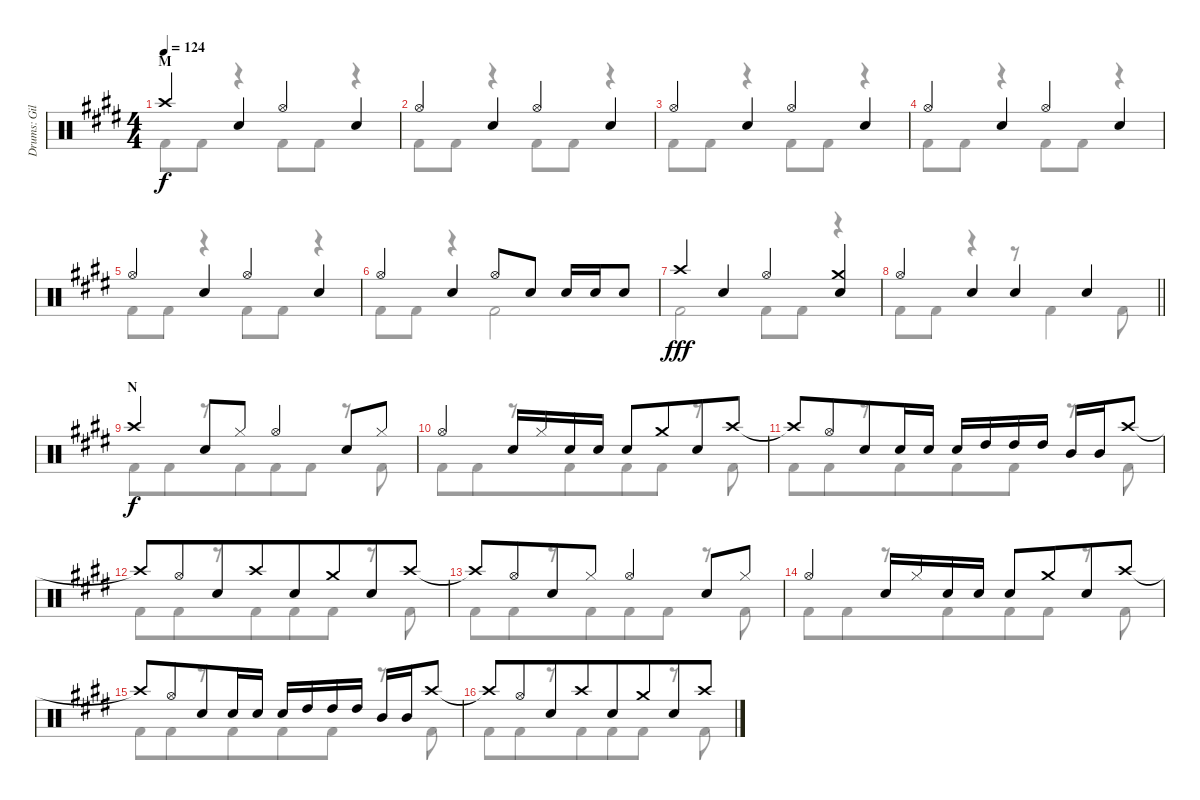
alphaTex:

\track ("Drums: Gil" "Drums: Gil") {instrument percussion}
\staff {score}
\articulation defaults
\voice
\ts (4 4)
\section ("" "M")
\tempo 124
\clef neutral
\ks e "Crash high (hit)".4{dy f} "Snare (hit) 2".4 "Hi-Hat (open)".4 "Snare (hit) 2".4
|
"Hi-Hat (open)".4 "Snare (hit) 2".4 "Hi-Hat (open)".4 "Snare (hit) 2".4 |
"Hi-Hat (open)".4 "Snare (hit) 2".4 "Hi-Hat (open)".4 "Snare (hit) 2".4 |
"Hi-Hat (open)".4 "Snare (hit) 2".4 "Hi-Hat (open)".4 "Snare (hit) 2".4 |
"Hi-Hat (open)".4 "Snare (hit) 2".4 "Hi-Hat (open)".4 "Snare (hit) 2".4 |
"Hi-Hat (open)".4 "Snare (hit) 2".4 "Hi-Hat (open)".8 "Snare (hit) 2".8 "Snare (hit) 2".16 "Snare (hit) 2".16 "Snare (hit) 2".8 |
"Crash high (hit)".4{dy fff} "Snare (hit) 2".4 "Hi-Hat (open)".4 ("Crash medium (hit)" "Snare (hit) 2").4 |
\barLineRight lightlight "Hi-Hat (open)".4 "Snare (hit) 2".4 "Snare (hit) 2".4 "Snare (hit) 2".4
|
\section ("" "N")
"Crash high (hit)".4{dy f beam merge} "Snare (hit) 2".8 "Hi-Hat (closed)".8 "Hi-Hat (open)".4 "Snare (hit) 2".8 "Hi-Hat (closed)".8 |
"Hi-Hat (open)".4{beam merge} "Snare (hit) 2".16 "Hi-Hat (closed)".16 "Snare (hit) 2".16 "Snare (hit) 2".16 "Snare (hit) 2".8 "Crash medium (hit)".8{beam merge} "Electric Snare (hit)".8 "Crash high (hit)".8 |
"Crash high (hit)"{t}.8 "Hi-Hat (open)".8{beam merge} "Snare (hit) 2".8 "Snare (hit) 2".16 "Snare (hit) 2".16 "Snare (hit) 2".16 "High Tom (hit)".16 "High Tom (hit)".16 "High Tom (hit)".16 "Mid Tom (hit)".16 "Mid Tom (hit)".16 "Crash high (hit)".8 |
"Crash high (hit)"{t}.8 "Hi-Hat (open)".8{beam merge} "Snare (hit) 2".8 "Crash high (hit)".8{beam merge} "Snare (hit) 2".8 "Crash medium (hit)".8{beam merge} "Snare (hit) 2".8 "Crash high (hit)".8 |
"Crash high (hit)"{t}.8 "Hi-Hat (open)".8{beam merge} "Snare (hit) 2".8 "Hi-Hat (closed)".8 "Hi-Hat (open)".4 "Snare (hit) 2".8 "Hi-Hat (closed)".8 |
"Hi-Hat (open)".4{beam merge} "Snare (hit) 2".16 "Hi-Hat (closed)".16 "Snare (hit) 2".16 "Snare (hit) 2".16 "Snare (hit) 2".8 "Crash medium (hit)".8{beam merge} "Electric Snare (hit)".8 "Crash high (hit)".8 |
"Crash high (hit)"{t}.8 "Hi-Hat (open)".8{beam merge} "Snare (hit) 2".8 "Snare (hit) 2".16 "Snare (hit) 2".16 "Snare (hit) 2".16 "High Tom (hit)".16 "High Tom (hit)".16 "High Tom (hit)".16 "Mid Tom (hit)".16 "Mid Tom (hit)".16 "Crash high (hit)".8 |
"Crash high (hit)"{t}.8 "Hi-Hat (open)".8{beam merge} "Snare (hit) 2".8 "Crash high (hit)".8{beam merge} "Snare (hit) 2".8 "Crash medium (hit)".8{beam merge} "Snare (hit) 2".8 "Crash high (hit)".8
\voice
\clef neutral
\ottava regular
\simile none
\ks e "Kick (hit) 2".8{dy f} "Kick (hit) 2".8
r.4{beam merge} "Kick (hit) 2".8 "Kick (hit) 2".8 r.4 |
"Kick (hit) 2".8 "Kick (hit) 2".8 r.4{beam merge} "Kick (hit) 2".8 "Kick (hit) 2".8 r.4 |
"Kick (hit) 2".8 "Kick (hit) 2".8 r.4{beam merge} "Kick (hit) 2".8 "Kick (hit) 2".8 r.4 |
"Kick (hit) 2".8 "Kick (hit) 2".8 r.4{beam merge} "Kick (hit) 2".8 "Kick (hit) 2".8 r.4 |
"Kick (hit) 2".8 "Kick (hit) 2".8 r.4{beam merge} "Kick (hit) 2".8 "Kick (hit) 2".8 r.4 |
"Kick (hit) 2".8 "Kick (hit) 2".8 r.4{beam merge} "Kick (hit) 2".2 |
"Kick (hit) 2".2{dy fff} "Kick (hit) 2".8 "Kick (hit) 2".8 r.4 |
\barLineRight lightlight "Kick (hit) 2".8 "Kick (hit) 2".8
r.4 r.8 "Kick (hit) 2".4 "Kick (hit) 2".8 |
"Kick (hit) 2".8{dy f} "Kick (hit) 2".8{beam merge} r.8{beam merge} "Kick (hit) 2".8{beam merge} "Kick (hit) 2".8 "Kick (hit) 2".8 r.8 "Kick (hit) 2".8 |
"Kick (hit) 2".8 "Kick (hit) 2".8{beam merge} r.8{beam merge} "Kick (hit) 2".8{beam merge} "Kick (hit) 2".8 "Kick (hit) 2".8 r.8 "Kick (hit) 2".8 |
"Kick (hit) 2".8 "Kick (hit) 2".8{beam merge} r.8{beam merge} "Kick (hit) 2".8{beam merge} "Kick (hit) 2".8 "Kick (hit) 2".8 r.8 "Kick (hit) 2".8 |
"Kick (hit) 2".8 "Kick (hit) 2".8{beam merge} r.8{beam merge} "Kick (hit) 2".8{beam merge} "Kick (hit) 2".8 "Kick (hit) 2".8 r.8 "Kick (hit) 2".8 |
"Kick (hit) 2".8 "Kick (hit) 2".8{beam merge} r.8{beam merge} "Kick (hit) 2".8{beam merge} "Kick (hit) 2".8 "Kick (hit) 2".8 r.8 "Kick (hit) 2".8 |
"Kick (hit) 2".8 "Kick (hit) 2".8{beam merge} r.8{beam merge} "Kick (hit) 2".8{beam merge} "Kick (hit) 2".8 "Kick (hit) 2".8 r.8 "Kick (hit) 2".8 |
"Kick (hit) 2".8 "Kick (hit) 2".8{beam merge} r.8{beam merge} "Kick (hit) 2".8{beam merge} "Kick (hit) 2".8 "Kick (hit) 2".8 r.8 "Kick (hit) 2".8 |
"Kick (hit) 2".8 "Kick (hit) 2".8{beam merge} r.8{beam merge} "Kick (hit) 2".8{beam merge} "Kick (hit) 2".8 "Kick (hit) 2".8 r.8 "Kick (hit) 2".8
